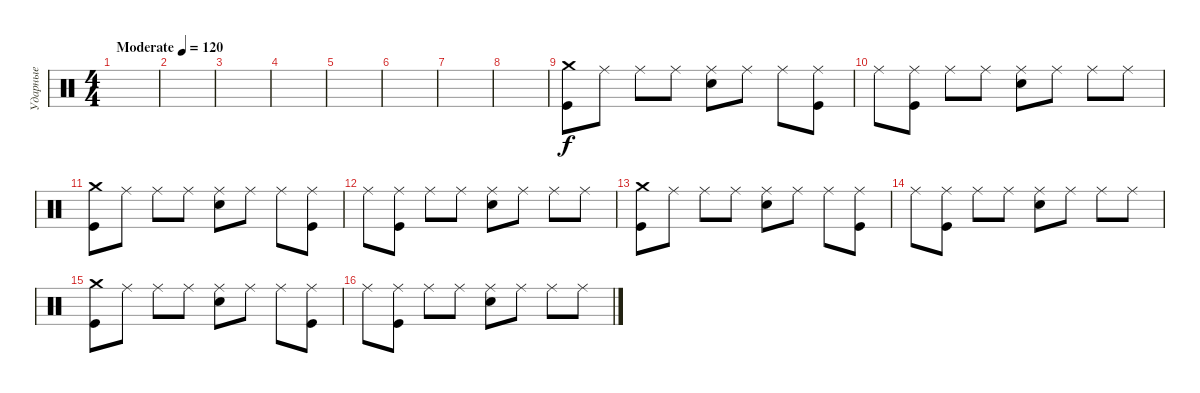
\track ("Ударные" "Ударные") {instrument percussion}
\staff {score}
\articulation defaults
\ts (4 4)
\tempo (120 "Moderate")
\clef neutral
\ks c
|
|
|
|
|
|
|
|
("Crash medium (hit)" "Kick (hit)").8 "Ride (middle)".8 "Ride (middle)".8 "Ride (middle)".8 ("Ride (middle)" "Snare (hit) 2").8 "Ride (middle)".8 "Ride (middle)".8 ("Ride (middle)" "Kick (hit)").8 |
"Ride (middle)".8 ("Ride (middle)" "Kick (hit)").8 "Ride (middle)".8 "Ride (middle)".8 ("Ride (middle)" "Snare (hit) 2").8 "Ride (middle)".8 "Ride (middle)".8 "Ride (middle)".8 |
("Crash medium (hit)" "Kick (hit)").8 "Ride (middle)".8 "Ride (middle)".8 "Ride (middle)".8 ("Ride (middle)" "Snare (hit) 2").8 "Ride (middle)".8 "Ride (middle)".8 ("Ride (middle)" "Kick (hit)").8 |
"Ride (middle)".8 ("Ride (middle)" "Kick (hit)").8 "Ride (middle)".8 "Ride (middle)".8 ("Ride (middle)" "Snare (hit) 2").8 "Ride (middle)".8 "Ride (middle)".8 "Ride (middle)".8 |
("Crash medium (hit)" "Kick (hit)").8 "Ride (middle)".8 "Ride (middle)".8 "Ride (middle)".8 ("Ride (middle)" "Snare (hit) 2").8 "Ride (middle)".8 "Ride (middle)".8 ("Ride (middle)" "Kick (hit)").8 |
"Ride (middle)".8 ("Ride (middle)" "Kick (hit)").8 "Ride (middle)".8 "Ride (middle)".8 ("Ride (middle)" "Snare (hit) 2").8 "Ride (middle)".8 "Ride (middle)".8 "Ride (middle)".8 |
("Crash medium (hit)" "Kick (hit)").8 "Ride (middle)".8 "Ride (middle)".8 "Ride (middle)".8 ("Ride (middle)" "Snare (hit) 2").8 "Ride (middle)".8 "Ride (middle)".8 ("Ride (middle)" "Kick (hit)").8 |
"Ride (middle)".8 ("Ride (middle)" "Kick (hit)").8 "Ride (middle)".8 "Ride (middle)".8 ("Ride (middle)" "Snare (hit) 2").8 "Ride (middle)".8 "Ride (middle)".8 "Ride (middle)".8
